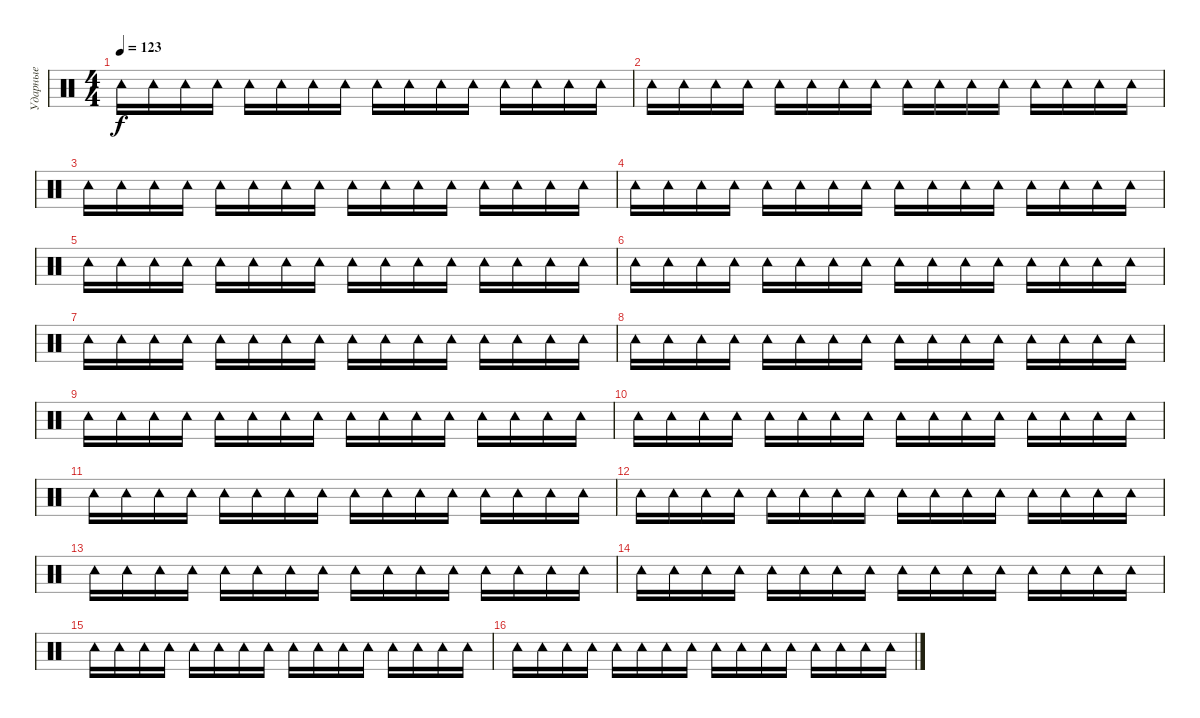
\track ("Ударные" "Ударные") {instrument percussion}
\staff {score}
\articulation defaults
\ts (4 4)
\tempo 123
\clef neutral
\ks c "Tambourine (hit)".16{dy f} "Tambourine (hit)".16 "Tambourine (hit)".16 "Tambourine (hit)".16 "Tambourine (hit)".16 "Tambourine (hit)".16 "Tambourine (hit)".16 "Tambourine (hit)".16 "Tambourine (hit)".16 "Tambourine (hit)".16 "Tambourine (hit)".16 "Tambourine (hit)".16 "Tambourine (hit)".16 "Tambourine (hit)".16 "Tambourine (hit)".16 "Tambourine (hit)".16
|
"Tambourine (hit)".16 "Tambourine (hit)".16 "Tambourine (hit)".16 "Tambourine (hit)".16 "Tambourine (hit)".16 "Tambourine (hit)".16 "Tambourine (hit)".16 "Tambourine (hit)".16 "Tambourine (hit)".16 "Tambourine (hit)".16 "Tambourine (hit)".16 "Tambourine (hit)".16 "Tambourine (hit)".16 "Tambourine (hit)".16 "Tambourine (hit)".16 "Tambourine (hit)".16 |
"Tambourine (hit)".16 "Tambourine (hit)".16 "Tambourine (hit)".16 "Tambourine (hit)".16 "Tambourine (hit)".16 "Tambourine (hit)".16 "Tambourine (hit)".16 "Tambourine (hit)".16 "Tambourine (hit)".16 "Tambourine (hit)".16 "Tambourine (hit)".16 "Tambourine (hit)".16 "Tambourine (hit)".16 "Tambourine (hit)".16 "Tambourine (hit)".16 "Tambourine (hit)".16 |
"Tambourine (hit)".16 "Tambourine (hit)".16 "Tambourine (hit)".16 "Tambourine (hit)".16 "Tambourine (hit)".16 "Tambourine (hit)".16 "Tambourine (hit)".16 "Tambourine (hit)".16 "Tambourine (hit)".16 "Tambourine (hit)".16 "Tambourine (hit)".16 "Tambourine (hit)".16 "Tambourine (hit)".16 "Tambourine (hit)".16 "Tambourine (hit)".16 "Tambourine (hit)".16 |
"Tambourine (hit)".16 "Tambourine (hit)".16 "Tambourine (hit)".16 "Tambourine (hit)".16 "Tambourine (hit)".16 "Tambourine (hit)".16 "Tambourine (hit)".16 "Tambourine (hit)".16 "Tambourine (hit)".16 "Tambourine (hit)".16 "Tambourine (hit)".16 "Tambourine (hit)".16 "Tambourine (hit)".16 "Tambourine (hit)".16 "Tambourine (hit)".16 "Tambourine (hit)".16 |
"Tambourine (hit)".16 "Tambourine (hit)".16 "Tambourine (hit)".16 "Tambourine (hit)".16 "Tambourine (hit)".16 "Tambourine (hit)".16 "Tambourine (hit)".16 "Tambourine (hit)".16 "Tambourine (hit)".16 "Tambourine (hit)".16 "Tambourine (hit)".16 "Tambourine (hit)".16 "Tambourine (hit)".16 "Tambourine (hit)".16 "Tambourine (hit)".16 "Tambourine (hit)".16 |
"Tambourine (hit)".16 "Tambourine (hit)".16 "Tambourine (hit)".16 "Tambourine (hit)".16 "Tambourine (hit)".16 "Tambourine (hit)".16 "Tambourine (hit)".16 "Tambourine (hit)".16 "Tambourine (hit)".16 "Tambourine (hit)".16 "Tambourine (hit)".16 "Tambourine (hit)".16 "Tambourine (hit)".16 "Tambourine (hit)".16 "Tambourine (hit)".16 "Tambourine (hit)".16 |
"Tambourine (hit)".16 "Tambourine (hit)".16 "Tambourine (hit)".16 "Tambourine (hit)".16 "Tambourine (hit)".16 "Tambourine (hit)".16 "Tambourine (hit)".16 "Tambourine (hit)".16 "Tambourine (hit)".16 "Tambourine (hit)".16 "Tambourine (hit)".16 "Tambourine (hit)".16 "Tambourine (hit)".16 "Tambourine (hit)".16 "Tambourine (hit)".16 "Tambourine (hit)".16 |
"Tambourine (hit)".16 "Tambourine (hit)".16 "Tambourine (hit)".16 "Tambourine (hit)".16 "Tambourine (hit)".16 "Tambourine (hit)".16 "Tambourine (hit)".16 "Tambourine (hit)".16 "Tambourine (hit)".16 "Tambourine (hit)".16 "Tambourine (hit)".16 "Tambourine (hit)".16 "Tambourine (hit)".16 "Tambourine (hit)".16 "Tambourine (hit)".16 "Tambourine (hit)".16 |
"Tambourine (hit)".16 "Tambourine (hit)".16 "Tambourine (hit)".16 "Tambourine (hit)".16 "Tambourine (hit)".16 "Tambourine (hit)".16 "Tambourine (hit)".16 "Tambourine (hit)".16 "Tambourine (hit)".16 "Tambourine (hit)".16 "Tambourine (hit)".16 "Tambourine (hit)".16 "Tambourine (hit)".16 "Tambourine (hit)".16 "Tambourine (hit)".16 "Tambourine (hit)".16 |
"Tambourine (hit)".16 "Tambourine (hit)".16 "Tambourine (hit)".16 "Tambourine (hit)".16 "Tambourine (hit)".16 "Tambourine (hit)".16 "Tambourine (hit)".16 "Tambourine (hit)".16 "Tambourine (hit)".16 "Tambourine (hit)".16 "Tambourine (hit)".16 "Tambourine (hit)".16 "Tambourine (hit)".16 "Tambourine (hit)".16 "Tambourine (hit)".16 "Tambourine (hit)".16 |
"Tambourine (hit)".16 "Tambourine (hit)".16 "Tambourine (hit)".16 "Tambourine (hit)".16 "Tambourine (hit)".16 "Tambourine (hit)".16 "Tambourine (hit)".16 "Tambourine (hit)".16 "Tambourine (hit)".16 "Tambourine (hit)".16 "Tambourine (hit)".16 "Tambourine (hit)".16 "Tambourine (hit)".16 "Tambourine (hit)".16 "Tambourine (hit)".16 "Tambourine (hit)".16 |
"Tambourine (hit)".16 "Tambourine (hit)".16 "Tambourine (hit)".16 "Tambourine (hit)".16 "Tambourine (hit)".16 "Tambourine (hit)".16 "Tambourine (hit)".16 "Tambourine (hit)".16 "Tambourine (hit)".16 "Tambourine (hit)".16 "Tambourine (hit)".16 "Tambourine (hit)".16 "Tambourine (hit)".16 "Tambourine (hit)".16 "Tambourine (hit)".16 "Tambourine (hit)".16 |
"Tambourine (hit)".16 "Tambourine (hit)".16 "Tambourine (hit)".16 "Tambourine (hit)".16 "Tambourine (hit)".16 "Tambourine (hit)".16 "Tambourine (hit)".16 "Tambourine (hit)".16 "Tambourine (hit)".16 "Tambourine (hit)".16 "Tambourine (hit)".16 "Tambourine (hit)".16 "Tambourine (hit)".16 "Tambourine (hit)".16 "Tambourine (hit)".16 "Tambourine (hit)".16 |
"Tambourine (hit)".16 "Tambourine (hit)".16 "Tambourine (hit)".16 "Tambourine (hit)".16 "Tambourine (hit)".16 "Tambourine (hit)".16 "Tambourine (hit)".16 "Tambourine (hit)".16 "Tambourine (hit)".16 "Tambourine (hit)".16 "Tambourine (hit)".16 "Tambourine (hit)".16 "Tambourine (hit)".16 "Tambourine (hit)".16 "Tambourine (hit)".16 "Tambourine (hit)".16 |
"Tambourine (hit)".16 "Tambourine (hit)".16 "Tambourine (hit)".16 "Tambourine (hit)".16 "Tambourine (hit)".16 "Tambourine (hit)".16 "Tambourine (hit)".16 "Tambourine (hit)".16 "Tambourine (hit)".16 "Tambourine (hit)".16 "Tambourine (hit)".16 "Tambourine (hit)".16 "Tambourine (hit)".16 "Tambourine (hit)".16 "Tambourine (hit)".16 "Tambourine (hit)".16
